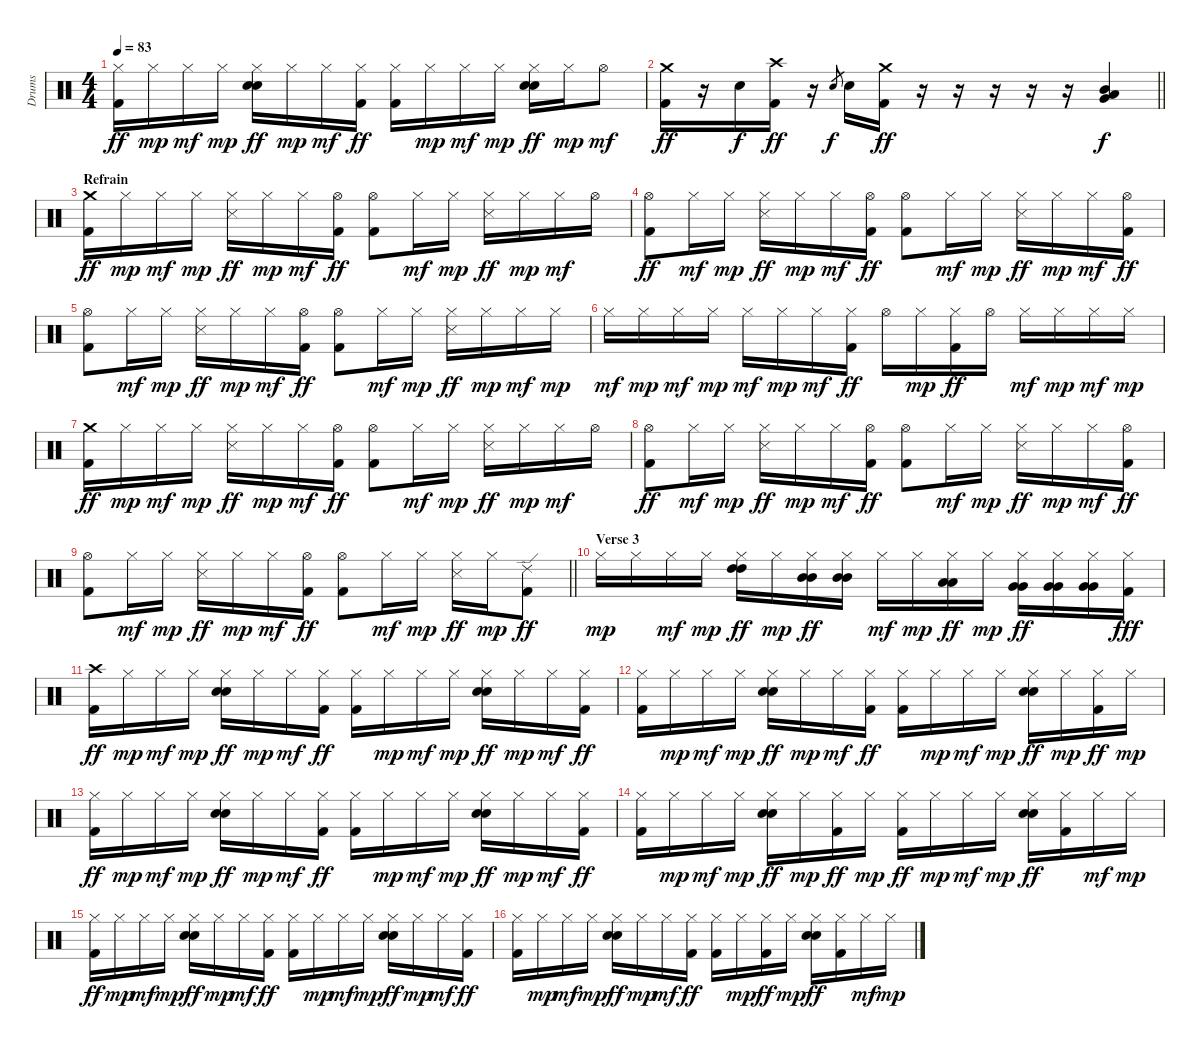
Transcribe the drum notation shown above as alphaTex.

\track ("Drums" "Drums") {instrument percussion}
\staff {score}
\articulation defaults
\ts (4 4)
\tempo 83
\clef neutral
\ks c
("Hi-Hat (closed)" "Kick (hit) 2").16{dy ff} "Hi-Hat (closed)".16{dy mp} "Hi-Hat (closed)".16{dy mf} "Hi-Hat (closed)".16{dy mp} ("Hi-Hat (closed)" "Electric Snare (hit)" "Snare (hit) 2").16{dy ff} "Hi-Hat (closed)".16{dy mp} "Hi-Hat (closed)".16{dy mf} ("Hi-Hat (closed)" "Kick (hit) 2").16{dy ff} ("Hi-Hat (closed)" "Kick (hit) 2").16 "Hi-Hat (closed)".16{dy mp} "Hi-Hat (closed)".16{dy mf} "Hi-Hat (closed)".16{dy mp} ("Hi-Hat (closed)" "Electric Snare (hit)" "Snare (hit) 2").16{dy ff} "Hi-Hat (closed)".16{dy mp} "Hi-Hat (open)".8{dy mf} |
\barLineRight lightlight
("Crash medium (hit)" "Kick (hit) 2").16{dy ff} r.16 "Electric Snare (hit)".16{dy f} ("Crash high (hit)" "Kick (hit) 2").16{dy ff} r.16 "Electric Snare (hit)".8{gr dy f} "Electric Snare (hit)".16 ("Crash medium (hit)" "Kick (hit) 2").16{dy ff} r.16 r.16 r.16 r.16 r.16 ("Mid Tom (hit)" "Low Tom (hit)" "Very Low Tom (hit)").4{dy f} |
\section ("" "Refrain")
("Crash medium (hit)" "Kick (hit) 2").16{dy ff} "Hi-Hat (closed)".16{dy mp} "Hi-Hat (closed)".16{dy mf} "Hi-Hat (closed)".16{dy mp} ("Hi-Hat (closed)" "Snare (side stick) 3").16{dy ff} "Hi-Hat (closed)".16{dy mp} "Hi-Hat (closed)".16{dy mf} ("Hi-Hat (open)" "Kick (hit) 2").16{dy ff} ("Hi-Hat (open)" "Kick (hit) 2").8 "Hi-Hat (closed)".16{dy mf} "Hi-Hat (closed)".16{dy mp} ("Hi-Hat (closed)" "Snare (side stick) 3").16{dy ff} "Hi-Hat (closed)".16{dy mp} "Hi-Hat (closed)".16{dy mf} "Hi-Hat (open)".16 |
("Hi-Hat (open)" "Kick (hit) 2").8{dy ff} "Hi-Hat (closed)".16{dy mf} "Hi-Hat (closed)".16{dy mp} ("Hi-Hat (closed)" "Snare (side stick) 3").16{dy ff} "Hi-Hat (closed)".16{dy mp} "Hi-Hat (closed)".16{dy mf} ("Hi-Hat (open)" "Kick (hit) 2").16{dy ff} ("Hi-Hat (open)" "Kick (hit) 2").8 "Hi-Hat (closed)".16{dy mf} "Hi-Hat (closed)".16{dy mp} ("Hi-Hat (closed)" "Snare (side stick) 3").16{dy ff} "Hi-Hat (closed)".16{dy mp} "Hi-Hat (closed)".16{dy mf} ("Hi-Hat (open)" "Kick (hit) 2").16{dy ff} |
("Hi-Hat (open)" "Kick (hit) 2").8 "Hi-Hat (closed)".16{dy mf} "Hi-Hat (closed)".16{dy mp} ("Hi-Hat (closed)" "Snare (side stick) 3").16{dy ff} "Hi-Hat (closed)".16{dy mp} "Hi-Hat (closed)".16{dy mf} ("Hi-Hat (open)" "Kick (hit) 2").16{dy ff} ("Hi-Hat (open)" "Kick (hit) 2").8 "Hi-Hat (closed)".16{dy mf} "Hi-Hat (closed)".16{dy mp} ("Hi-Hat (closed)" "Snare (side stick) 3").16{dy ff} "Hi-Hat (closed)".16{dy mp} "Hi-Hat (closed)".16{dy mf} "Hi-Hat (closed)".16{dy mp} |
"Hi-Hat (closed)".16{dy mf} "Hi-Hat (closed)".16{dy mp} "Hi-Hat (closed)".16{dy mf} "Hi-Hat (closed)".16{dy mp} "Hi-Hat (closed)".16{dy mf} "Hi-Hat (closed)".16{dy mp} "Hi-Hat (closed)".16{dy mf} ("Hi-Hat (closed)" "Kick (hit) 2").16{dy ff} "Hi-Hat (open)".16 "Hi-Hat (closed)".16{dy mp} ("Hi-Hat (closed)" "Kick (hit) 2").16{dy ff} "Hi-Hat (open)".16 "Hi-Hat (closed)".16{dy mf} "Hi-Hat (closed)".16{dy mp} "Hi-Hat (closed)".16{dy mf} "Hi-Hat (closed)".16{dy mp} |
("Crash medium (hit)" "Kick (hit) 2").16{dy ff} "Hi-Hat (closed)".16{dy mp} "Hi-Hat (closed)".16{dy mf} "Hi-Hat (closed)".16{dy mp} ("Hi-Hat (closed)" "Snare (side stick) 3").16{dy ff} "Hi-Hat (closed)".16{dy mp} "Hi-Hat (closed)".16{dy mf} ("Hi-Hat (open)" "Kick (hit) 2").16{dy ff} ("Hi-Hat (open)" "Kick (hit) 2").8 "Hi-Hat (closed)".16{dy mf} "Hi-Hat (closed)".16{dy mp} ("Hi-Hat (closed)" "Snare (side stick) 3").16{dy ff} "Hi-Hat (closed)".16{dy mp} "Hi-Hat (closed)".16{dy mf} "Hi-Hat (open)".16 |
("Hi-Hat (open)" "Kick (hit) 2").8{dy ff} "Hi-Hat (closed)".16{dy mf} "Hi-Hat (closed)".16{dy mp} ("Hi-Hat (closed)" "Snare (side stick) 3").16{dy ff} "Hi-Hat (closed)".16{dy mp} "Hi-Hat (closed)".16{dy mf} ("Hi-Hat (open)" "Kick (hit) 2").16{dy ff} ("Hi-Hat (open)" "Kick (hit) 2").8 "Hi-Hat (closed)".16{dy mf} "Hi-Hat (closed)".16{dy mp} ("Hi-Hat (closed)" "Snare (side stick) 3").16{dy ff} "Hi-Hat (closed)".16{dy mp} "Hi-Hat (closed)".16{dy mf} ("Hi-Hat (open)" "Kick (hit) 2").16{dy ff} |
\barLineRight lightlight
("Hi-Hat (open)" "Kick (hit) 2").8 "Hi-Hat (closed)".16{dy mf} "Hi-Hat (closed)".16{dy mp} ("Hi-Hat (closed)" "Snare (side stick) 3").16{dy ff} "Hi-Hat (closed)".16{dy mp} "Hi-Hat (closed)".16{dy mf} ("Hi-Hat (open)" "Kick (hit) 2").16{dy ff} ("Hi-Hat (open)" "Kick (hit) 2").8 "Hi-Hat (closed)".16{dy mf} "Hi-Hat (closed)".16{dy mp} ("Hi-Hat (closed)" "Snare (side stick) 3").16{dy ff} "Hi-Hat (closed)".16{dy mp} ("Ride (edge) 2" "Kick (hit) 2").8{dy ff} |
\section ("" "Verse 3")
"Hi-Hat (closed)".16{dy mp} "Hi-Hat (closed)".16 "Hi-Hat (closed)".16{dy mf} "Hi-Hat (closed)".16{dy mp} ("Hi-Hat (closed)" "High Tom (hit)" "High Tom (hit)").16{dy ff} "Hi-Hat (closed)".16{dy mp} ("Hi-Hat (closed)" "Mid Tom (hit)" "Mid Tom (hit)").16{dy ff} ("Hi-Hat (closed)" "Mid Tom (hit)" "Mid Tom (hit)").16 "Hi-Hat (closed)".16{dy mf} "Hi-Hat (closed)".16{dy mp} ("Hi-Hat (closed)" "Low Tom (hit)" "Low Tom (hit)").16{dy ff} "Hi-Hat (closed)".16{dy mp} ("Hi-Hat (closed)" "Very Low Tom (hit)" "Very Low Tom (hit)").16{dy ff} ("Hi-Hat (closed)" "Very Low Tom (hit)" "Very Low Tom (hit)").16 ("Hi-Hat (closed)" "Very Low Tom (hit)" "Very Low Tom (hit)").16 ("Hi-Hat (closed)" "Kick (hit) 2").16{dy fff} |
("Crash high (hit)" "Kick (hit) 2").16{dy ff} "Hi-Hat (closed)".16{dy mp} "Hi-Hat (closed)".16{dy mf} "Hi-Hat (closed)".16{dy mp} ("Hi-Hat (closed)" "Electric Snare (hit)" "Snare (hit) 2").16{dy ff} "Hi-Hat (closed)".16{dy mp} "Hi-Hat (closed)".16{dy mf} ("Hi-Hat (closed)" "Kick (hit) 2").16{dy ff} ("Hi-Hat (closed)" "Kick (hit) 2").16 "Hi-Hat (closed)".16{dy mp} "Hi-Hat (closed)".16{dy mf} "Hi-Hat (closed)".16{dy mp} ("Hi-Hat (closed)" "Electric Snare (hit)" "Snare (hit) 2").16{dy ff} "Hi-Hat (closed)".16{dy mp} "Hi-Hat (closed)".16{dy mf} ("Hi-Hat (closed)" "Kick (hit) 2").16{dy ff} |
("Hi-Hat (closed)" "Kick (hit) 2").16 "Hi-Hat (closed)".16{dy mp} "Hi-Hat (closed)".16{dy mf} "Hi-Hat (closed)".16{dy mp} ("Hi-Hat (closed)" "Electric Snare (hit)" "Snare (hit) 2").16{dy ff} "Hi-Hat (closed)".16{dy mp} "Hi-Hat (closed)".16{dy mf} ("Hi-Hat (closed)" "Kick (hit) 2").16{dy ff} ("Hi-Hat (closed)" "Kick (hit) 2").16 "Hi-Hat (closed)".16{dy mp} "Hi-Hat (closed)".16{dy mf} "Hi-Hat (closed)".16{dy mp} ("Hi-Hat (closed)" "Electric Snare (hit)" "Snare (hit) 2").16{dy ff} "Hi-Hat (closed)".16{dy mp} ("Hi-Hat (closed)" "Kick (hit) 2").16{dy ff} "Hi-Hat (closed)".16{dy mp} |
("Hi-Hat (closed)" "Kick (hit) 2").16{dy ff} "Hi-Hat (closed)".16{dy mp} "Hi-Hat (closed)".16{dy mf} "Hi-Hat (closed)".16{dy mp} ("Hi-Hat (closed)" "Electric Snare (hit)" "Snare (hit) 2").16{dy ff} "Hi-Hat (closed)".16{dy mp} "Hi-Hat (closed)".16{dy mf} ("Hi-Hat (closed)" "Kick (hit) 2").16{dy ff} ("Hi-Hat (closed)" "Kick (hit) 2").16 "Hi-Hat (closed)".16{dy mp} "Hi-Hat (closed)".16{dy mf} "Hi-Hat (closed)".16{dy mp} ("Hi-Hat (closed)" "Electric Snare (hit)" "Snare (hit) 2").16{dy ff} "Hi-Hat (closed)".16{dy mp} "Hi-Hat (closed)".16{dy mf} ("Hi-Hat (closed)" "Kick (hit) 2").16{dy ff} |
("Hi-Hat (closed)" "Kick (hit) 2").16 "Hi-Hat (closed)".16{dy mp} "Hi-Hat (closed)".16{dy mf} "Hi-Hat (closed)".16{dy mp} ("Hi-Hat (closed)" "Electric Snare (hit)" "Snare (hit) 2").16{dy ff} "Hi-Hat (closed)".16{dy mp} ("Hi-Hat (closed)" "Kick (hit) 2").16{dy ff} "Hi-Hat (closed)".16{dy mp} ("Hi-Hat (closed)" "Kick (hit) 2").16{dy ff} "Hi-Hat (closed)".16{dy mp} "Hi-Hat (closed)".16{dy mf} "Hi-Hat (closed)".16{dy mp} ("Hi-Hat (closed)" "Electric Snare (hit)" "Snare (hit) 2").16{dy ff} ("Hi-Hat (closed)" "Kick (hit) 2").16 "Hi-Hat (closed)".16{dy mf} "Hi-Hat (closed)".16{dy mp} |
("Hi-Hat (closed)" "Kick (hit) 2").16{dy ff} "Hi-Hat (closed)".16{dy mp} "Hi-Hat (closed)".16{dy mf} "Hi-Hat (closed)".16{dy mp} ("Hi-Hat (closed)" "Electric Snare (hit)" "Snare (hit) 2").16{dy ff} "Hi-Hat (closed)".16{dy mp} "Hi-Hat (closed)".16{dy mf} ("Hi-Hat (closed)" "Kick (hit) 2").16{dy ff} ("Hi-Hat (closed)" "Kick (hit) 2").16 "Hi-Hat (closed)".16{dy mp} "Hi-Hat (closed)".16{dy mf} "Hi-Hat (closed)".16{dy mp} ("Hi-Hat (closed)" "Electric Snare (hit)" "Snare (hit) 2").16{dy ff} "Hi-Hat (closed)".16{dy mp} "Hi-Hat (closed)".16{dy mf} ("Hi-Hat (closed)" "Kick (hit) 2").16{dy ff} |
("Hi-Hat (closed)" "Kick (hit) 2").16 "Hi-Hat (closed)".16{dy mp} "Hi-Hat (closed)".16{dy mf} "Hi-Hat (closed)".16{dy mp} ("Hi-Hat (closed)" "Electric Snare (hit)" "Snare (hit) 2").16{dy ff} "Hi-Hat (closed)".16{dy mp} "Hi-Hat (closed)".16{dy mf} ("Hi-Hat (closed)" "Kick (hit) 2").16{dy ff} ("Hi-Hat (closed)" "Kick (hit) 2").16 "Hi-Hat (closed)".16{dy mp} ("Hi-Hat (closed)" "Kick (hit) 2").16{dy ff} "Hi-Hat (closed)".16{dy mp} ("Hi-Hat (closed)" "Electric Snare (hit)" "Snare (hit) 2").16{dy ff} ("Hi-Hat (closed)" "Kick (hit) 2").16 "Hi-Hat (closed)".16{dy mf} "Hi-Hat (closed)".16{dy mp}
